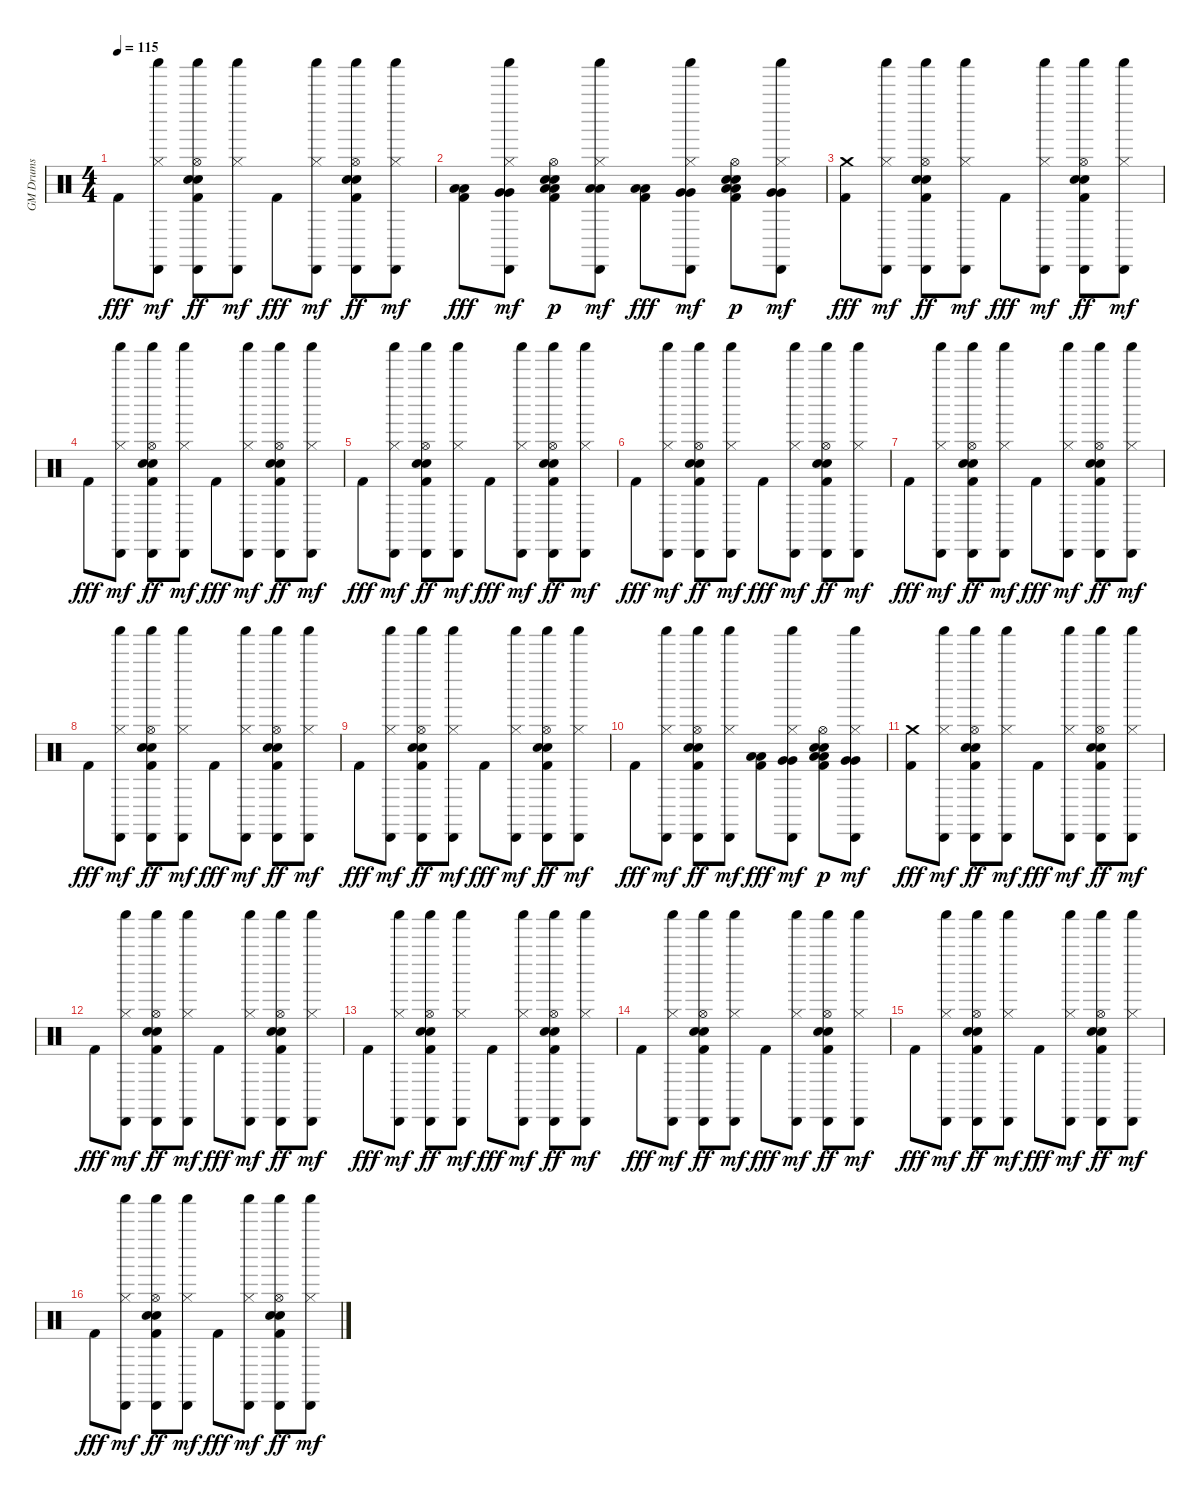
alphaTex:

\track ("GM Drums" "GM Drums") {instrument percussion}
\staff {score}
\articulation defaults
\ts (4 4)
\tempo 115
\clef neutral
\ks c "Kick (hit) 2".8{dy fff}
("Hi-Hat (closed)" "Cabasa (hit)" "Shaker (hit)").8{dy mf} ("Kick (hit) 2" "Snare (hit) 2" "Hand Clap (hit)" "Hi-Hat (open)" "Cabasa (hit)" "Shaker (hit)").8{dy ff} ("Hi-Hat (closed)" "Cabasa (hit)" "Shaker (hit)").8{dy mf} "Kick (hit) 2".8{dy fff} ("Hi-Hat (closed)" "Cabasa (hit)" "Shaker (hit)").8{dy mf} ("Kick (hit) 2" "Snare (hit) 2" "Hand Clap (hit)" "Hi-Hat (open)" "Cabasa (hit)" "Shaker (hit)").8{dy ff} ("Hi-Hat (closed)" "Cabasa (hit)" "Shaker (hit)").8{dy mf} |
("Kick (hit) 2" "Low Tom (hit)" "Low Tom (hit)").8{dy fff} ("Hi-Hat (closed)" "Very Low Tom (hit)" "Very Low Tom (hit)" "Cabasa (hit)" "Shaker (hit)").8{dy mf} ("Kick (hit) 2" "Snare (hit) 2" "Hand Clap (hit)" "Low Floor Tom (hit)" "Low Floor Tom (hit)" "Hi-Hat (open)").8{dy p} ("Hi-Hat (closed)" "Low Tom (hit)" "Low Tom (hit)" "Cabasa (hit)" "Shaker (hit)").8{dy mf} ("Kick (hit) 2" "Low Tom (hit)" "Low Tom (hit)").8{dy fff} ("Hi-Hat (closed)" "Very Low Tom (hit)" "Very Low Tom (hit)" "Cabasa (hit)" "Shaker (hit)").8{dy mf} ("Kick (hit) 2" "Snare (hit) 2" "Hand Clap (hit)" "Low Floor Tom (hit)" "Low Floor Tom (hit)" "Hi-Hat (open)").8{dy p} ("Hi-Hat (closed)" "Very Low Tom (hit)" "Very Low Tom (hit)" "Cabasa (hit)" "Shaker (hit)").8{dy mf} |
("Kick (hit) 2" "Crash medium (hit)").8{dy fff} ("Hi-Hat (closed)" "Cabasa (hit)" "Shaker (hit)").8{dy mf} ("Kick (hit) 2" "Snare (hit) 2" "Hand Clap (hit)" "Hi-Hat (open)" "Cabasa (hit)" "Shaker (hit)").8{dy ff} ("Hi-Hat (closed)" "Cabasa (hit)" "Shaker (hit)").8{dy mf} "Kick (hit) 2".8{dy fff} ("Hi-Hat (closed)" "Cabasa (hit)" "Shaker (hit)").8{dy mf} ("Kick (hit) 2" "Snare (hit) 2" "Hand Clap (hit)" "Hi-Hat (open)" "Cabasa (hit)" "Shaker (hit)").8{dy ff} ("Hi-Hat (closed)" "Cabasa (hit)" "Shaker (hit)").8{dy mf} |
"Kick (hit) 2".8{dy fff} ("Hi-Hat (closed)" "Cabasa (hit)" "Shaker (hit)").8{dy mf} ("Kick (hit) 2" "Snare (hit) 2" "Hand Clap (hit)" "Hi-Hat (open)" "Cabasa (hit)" "Shaker (hit)").8{dy ff} ("Hi-Hat (closed)" "Cabasa (hit)" "Shaker (hit)").8{dy mf} "Kick (hit) 2".8{dy fff} ("Hi-Hat (closed)" "Cabasa (hit)" "Shaker (hit)").8{dy mf} ("Kick (hit) 2" "Snare (hit) 2" "Hand Clap (hit)" "Hi-Hat (open)" "Cabasa (hit)" "Shaker (hit)").8{dy ff} ("Hi-Hat (closed)" "Cabasa (hit)" "Shaker (hit)").8{dy mf} |
"Kick (hit) 2".8{dy fff} ("Hi-Hat (closed)" "Cabasa (hit)" "Shaker (hit)").8{dy mf} ("Kick (hit) 2" "Snare (hit) 2" "Hand Clap (hit)" "Hi-Hat (open)" "Cabasa (hit)" "Shaker (hit)").8{dy ff} ("Hi-Hat (closed)" "Cabasa (hit)" "Shaker (hit)").8{dy mf} "Kick (hit) 2".8{dy fff} ("Hi-Hat (closed)" "Cabasa (hit)" "Shaker (hit)").8{dy mf} ("Kick (hit) 2" "Snare (hit) 2" "Hand Clap (hit)" "Hi-Hat (open)" "Cabasa (hit)" "Shaker (hit)").8{dy ff} ("Hi-Hat (closed)" "Cabasa (hit)" "Shaker (hit)").8{dy mf} |
"Kick (hit) 2".8{dy fff} ("Hi-Hat (closed)" "Cabasa (hit)" "Shaker (hit)").8{dy mf} ("Kick (hit) 2" "Snare (hit) 2" "Hand Clap (hit)" "Hi-Hat (open)" "Cabasa (hit)" "Shaker (hit)").8{dy ff} ("Hi-Hat (closed)" "Cabasa (hit)" "Shaker (hit)").8{dy mf} "Kick (hit) 2".8{dy fff} ("Hi-Hat (closed)" "Cabasa (hit)" "Shaker (hit)").8{dy mf} ("Kick (hit) 2" "Snare (hit) 2" "Hand Clap (hit)" "Hi-Hat (open)" "Cabasa (hit)" "Shaker (hit)").8{dy ff} ("Hi-Hat (closed)" "Cabasa (hit)" "Shaker (hit)").8{dy mf} |
"Kick (hit) 2".8{dy fff} ("Hi-Hat (closed)" "Cabasa (hit)" "Shaker (hit)").8{dy mf} ("Kick (hit) 2" "Snare (hit) 2" "Hand Clap (hit)" "Hi-Hat (open)" "Cabasa (hit)" "Shaker (hit)").8{dy ff} ("Hi-Hat (closed)" "Cabasa (hit)" "Shaker (hit)").8{dy mf} "Kick (hit) 2".8{dy fff} ("Hi-Hat (closed)" "Cabasa (hit)" "Shaker (hit)").8{dy mf} ("Kick (hit) 2" "Snare (hit) 2" "Hand Clap (hit)" "Hi-Hat (open)" "Cabasa (hit)" "Shaker (hit)").8{dy ff} ("Hi-Hat (closed)" "Cabasa (hit)" "Shaker (hit)").8{dy mf} |
"Kick (hit) 2".8{dy fff} ("Hi-Hat (closed)" "Cabasa (hit)" "Shaker (hit)").8{dy mf} ("Kick (hit) 2" "Snare (hit) 2" "Hand Clap (hit)" "Hi-Hat (open)" "Cabasa (hit)" "Shaker (hit)").8{dy ff} ("Hi-Hat (closed)" "Cabasa (hit)" "Shaker (hit)").8{dy mf} "Kick (hit) 2".8{dy fff} ("Hi-Hat (closed)" "Cabasa (hit)" "Shaker (hit)").8{dy mf} ("Kick (hit) 2" "Snare (hit) 2" "Hand Clap (hit)" "Hi-Hat (open)" "Cabasa (hit)" "Shaker (hit)").8{dy ff} ("Hi-Hat (closed)" "Cabasa (hit)" "Shaker (hit)").8{dy mf} |
"Kick (hit) 2".8{dy fff} ("Hi-Hat (closed)" "Cabasa (hit)" "Shaker (hit)").8{dy mf} ("Kick (hit) 2" "Snare (hit) 2" "Hand Clap (hit)" "Hi-Hat (open)" "Cabasa (hit)" "Shaker (hit)").8{dy ff} ("Hi-Hat (closed)" "Cabasa (hit)" "Shaker (hit)").8{dy mf} "Kick (hit) 2".8{dy fff} ("Hi-Hat (closed)" "Cabasa (hit)" "Shaker (hit)").8{dy mf} ("Kick (hit) 2" "Snare (hit) 2" "Hand Clap (hit)" "Hi-Hat (open)" "Cabasa (hit)" "Shaker (hit)").8{dy ff} ("Hi-Hat (closed)" "Cabasa (hit)" "Shaker (hit)").8{dy mf} |
"Kick (hit) 2".8{dy fff} ("Hi-Hat (closed)" "Cabasa (hit)" "Shaker (hit)").8{dy mf} ("Kick (hit) 2" "Snare (hit) 2" "Hand Clap (hit)" "Hi-Hat (open)" "Cabasa (hit)" "Shaker (hit)").8{dy ff} ("Hi-Hat (closed)" "Cabasa (hit)" "Shaker (hit)").8{dy mf} ("Kick (hit) 2" "Low Tom (hit)" "Low Tom (hit)").8{dy fff} ("Hi-Hat (closed)" "Very Low Tom (hit)" "Very Low Tom (hit)" "Cabasa (hit)" "Shaker (hit)").8{dy mf} ("Kick (hit) 2" "Snare (hit) 2" "Hand Clap (hit)" "Low Floor Tom (hit)" "Low Floor Tom (hit)" "Hi-Hat (open)").8{dy p} ("Hi-Hat (closed)" "Very Low Tom (hit)" "Very Low Tom (hit)" "Cabasa (hit)" "Shaker (hit)").8{dy mf} |
("Kick (hit) 2" "Crash medium (hit)").8{dy fff} ("Hi-Hat (closed)" "Cabasa (hit)" "Shaker (hit)").8{dy mf} ("Kick (hit) 2" "Snare (hit) 2" "Hand Clap (hit)" "Hi-Hat (open)" "Cabasa (hit)" "Shaker (hit)").8{dy ff} ("Hi-Hat (closed)" "Cabasa (hit)" "Shaker (hit)").8{dy mf} "Kick (hit) 2".8{dy fff} ("Hi-Hat (closed)" "Cabasa (hit)" "Shaker (hit)").8{dy mf} ("Kick (hit) 2" "Snare (hit) 2" "Hand Clap (hit)" "Hi-Hat (open)" "Cabasa (hit)" "Shaker (hit)").8{dy ff} ("Hi-Hat (closed)" "Cabasa (hit)" "Shaker (hit)").8{dy mf} |
"Kick (hit) 2".8{dy fff} ("Hi-Hat (closed)" "Cabasa (hit)" "Shaker (hit)").8{dy mf} ("Kick (hit) 2" "Snare (hit) 2" "Hand Clap (hit)" "Hi-Hat (open)" "Cabasa (hit)" "Shaker (hit)").8{dy ff} ("Hi-Hat (closed)" "Cabasa (hit)" "Shaker (hit)").8{dy mf} "Kick (hit) 2".8{dy fff} ("Hi-Hat (closed)" "Cabasa (hit)" "Shaker (hit)").8{dy mf} ("Kick (hit) 2" "Snare (hit) 2" "Hand Clap (hit)" "Hi-Hat (open)" "Cabasa (hit)" "Shaker (hit)").8{dy ff} ("Hi-Hat (closed)" "Cabasa (hit)" "Shaker (hit)").8{dy mf} |
"Kick (hit) 2".8{dy fff} ("Hi-Hat (closed)" "Cabasa (hit)" "Shaker (hit)").8{dy mf} ("Kick (hit) 2" "Snare (hit) 2" "Hand Clap (hit)" "Hi-Hat (open)" "Cabasa (hit)" "Shaker (hit)").8{dy ff} ("Hi-Hat (closed)" "Cabasa (hit)" "Shaker (hit)").8{dy mf} "Kick (hit) 2".8{dy fff} ("Hi-Hat (closed)" "Cabasa (hit)" "Shaker (hit)").8{dy mf} ("Kick (hit) 2" "Snare (hit) 2" "Hand Clap (hit)" "Hi-Hat (open)" "Cabasa (hit)" "Shaker (hit)").8{dy ff} ("Hi-Hat (closed)" "Cabasa (hit)" "Shaker (hit)").8{dy mf} |
"Kick (hit) 2".8{dy fff} ("Hi-Hat (closed)" "Cabasa (hit)" "Shaker (hit)").8{dy mf} ("Kick (hit) 2" "Snare (hit) 2" "Hand Clap (hit)" "Hi-Hat (open)" "Cabasa (hit)" "Shaker (hit)").8{dy ff} ("Hi-Hat (closed)" "Cabasa (hit)" "Shaker (hit)").8{dy mf} "Kick (hit) 2".8{dy fff} ("Hi-Hat (closed)" "Cabasa (hit)" "Shaker (hit)").8{dy mf} ("Kick (hit) 2" "Snare (hit) 2" "Hand Clap (hit)" "Hi-Hat (open)" "Cabasa (hit)" "Shaker (hit)").8{dy ff} ("Hi-Hat (closed)" "Cabasa (hit)" "Shaker (hit)").8{dy mf} |
"Kick (hit) 2".8{dy fff} ("Hi-Hat (closed)" "Cabasa (hit)" "Shaker (hit)").8{dy mf} ("Kick (hit) 2" "Snare (hit) 2" "Hand Clap (hit)" "Hi-Hat (open)" "Cabasa (hit)" "Shaker (hit)").8{dy ff} ("Hi-Hat (closed)" "Cabasa (hit)" "Shaker (hit)").8{dy mf} "Kick (hit) 2".8{dy fff} ("Hi-Hat (closed)" "Cabasa (hit)" "Shaker (hit)").8{dy mf} ("Kick (hit) 2" "Snare (hit) 2" "Hand Clap (hit)" "Hi-Hat (open)" "Cabasa (hit)" "Shaker (hit)").8{dy ff} ("Hi-Hat (closed)" "Cabasa (hit)" "Shaker (hit)").8{dy mf} |
"Kick (hit) 2".8{dy fff} ("Hi-Hat (closed)" "Cabasa (hit)" "Shaker (hit)").8{dy mf} ("Kick (hit) 2" "Snare (hit) 2" "Hand Clap (hit)" "Hi-Hat (open)" "Cabasa (hit)" "Shaker (hit)").8{dy ff} ("Hi-Hat (closed)" "Cabasa (hit)" "Shaker (hit)").8{dy mf} "Kick (hit) 2".8{dy fff} ("Hi-Hat (closed)" "Cabasa (hit)" "Shaker (hit)").8{dy mf} ("Kick (hit) 2" "Snare (hit) 2" "Hand Clap (hit)" "Hi-Hat (open)" "Cabasa (hit)" "Shaker (hit)").8{dy ff} ("Hi-Hat (closed)" "Cabasa (hit)" "Shaker (hit)").8{dy mf}
